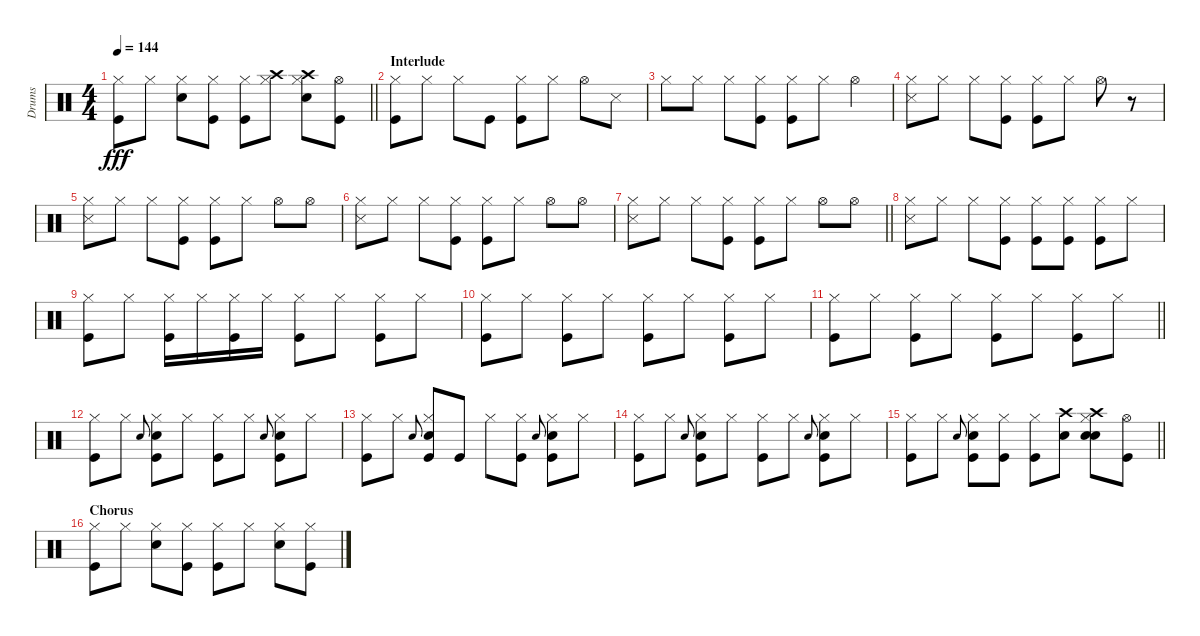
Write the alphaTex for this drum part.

\track ("Drums" "Drums") {instrument percussion}
\staff {score}
\articulation defaults
\ts (4 4)
\tempo 144
\clef neutral
\barLineRight lightlight
\ks c
("Kick (hit)" "Hi-Hat (closed)").8{dy fff} "Hi-Hat (closed)".8 ("Snare (hit) 2" "Hi-Hat (closed)").8 ("Kick (hit)" "Hi-Hat (closed)").8 ("Hi-Hat (closed)" "Kick (hit)").8 ("Crash high (hit)" "Hi-Hat (closed)").8 ("Crash high (hit)" "Snare (hit) 2" "Hi-Hat (closed)").8 ("Hi-Hat (open)" "Kick (hit)").8 |
\section ("" "Interlude")
("Hi-Hat (closed)" "Kick (hit)").8 "Hi-Hat (closed)".8 "Hi-Hat (closed)".8 "Kick (hit)".8 ("Kick (hit)" "Hi-Hat (closed)").8 "Hi-Hat (closed)".8 "Hi-Hat (open)".8 "Snare (side stick) 3".8 |
"Hi-Hat (closed)".8 "Hi-Hat (closed)".8 "Hi-Hat (closed)".8 ("Hi-Hat (closed)" "Kick (hit)").8 ("Hi-Hat (closed)" "Kick (hit)").8 "Hi-Hat (closed)".8 "Hi-Hat (open)".4 |
("Hi-Hat (closed)" "Snare (side stick) 3").8 "Hi-Hat (closed)".8 "Hi-Hat (closed)".8 ("Hi-Hat (closed)" "Kick (hit)").8 ("Hi-Hat (closed)" "Kick (hit)").8 "Hi-Hat (closed)".8 "Hi-Hat (open)".8 r.8 |
("Snare (side stick) 3" "Hi-Hat (closed)").8 "Hi-Hat (closed)".8 "Hi-Hat (closed)".8 ("Hi-Hat (closed)" "Kick (hit)").8 ("Hi-Hat (closed)" "Kick (hit)").8 "Hi-Hat (closed)".8 "Hi-Hat (open)".8 "Hi-Hat (open)".8 |
("Hi-Hat (closed)" "Snare (side stick) 3").8 "Hi-Hat (closed)".8 "Hi-Hat (closed)".8 ("Hi-Hat (closed)" "Kick (hit)").8 ("Hi-Hat (closed)" "Kick (hit)").8 "Hi-Hat (closed)".8 "Hi-Hat (open)".8 "Hi-Hat (open)".8 |
\barLineRight lightlight
("Snare (side stick) 3" "Hi-Hat (closed)").8 "Hi-Hat (closed)".8 "Hi-Hat (closed)".8 ("Hi-Hat (closed)" "Kick (hit)").8 ("Kick (hit)" "Hi-Hat (closed)").8 "Hi-Hat (closed)".8 "Hi-Hat (open)".8 "Hi-Hat (open)".8 |
("Hi-Hat (closed)" "Snare (side stick) 3").8 "Hi-Hat (closed)".8 "Hi-Hat (closed)".8 ("Hi-Hat (closed)" "Kick (hit)").8 ("Kick (hit)" "Hi-Hat (closed)").8 ("Kick (hit)" "Hi-Hat (closed)").8 ("Hi-Hat (closed)" "Kick (hit)").8 "Hi-Hat (closed)".8 |
("Kick (hit)" "Hi-Hat (closed)").8 "Hi-Hat (closed)".8 ("Hi-Hat (closed)" "Kick (hit)").16 "Hi-Hat (closed)".16 ("Hi-Hat (closed)" "Kick (hit)").16 "Hi-Hat (closed)".16 ("Kick (hit)" "Hi-Hat (closed)").8 "Hi-Hat (closed)".8 ("Kick (hit)" "Hi-Hat (closed)").8 "Hi-Hat (closed)".8 |
("Hi-Hat (closed)" "Kick (hit)").8 "Hi-Hat (closed)".8 ("Hi-Hat (closed)" "Kick (hit)").8 "Hi-Hat (closed)".8 ("Kick (hit)" "Hi-Hat (closed)").8 "Hi-Hat (closed)".8 ("Kick (hit)" "Hi-Hat (closed)").8 "Hi-Hat (closed)".8 |
\barLineRight lightlight
("Hi-Hat (closed)" "Kick (hit)").8 "Hi-Hat (closed)".8 ("Hi-Hat (closed)" "Kick (hit)").8 "Hi-Hat (closed)".8 ("Kick (hit)" "Hi-Hat (closed)").8 "Hi-Hat (closed)".8 ("Kick (hit)" "Hi-Hat (closed)").8 "Hi-Hat (closed)".8 |
("Kick (hit)" "Hi-Hat (closed)").8 "Hi-Hat (closed)".8 "Snare (hit) 2"{h}.8{gr onbeat} ("Kick (hit)" "Hi-Hat (closed)" "Snare (hit) 2").8 "Hi-Hat (closed)".8 ("Kick (hit)" "Hi-Hat (closed)").8 "Hi-Hat (closed)".8 "Snare (hit) 2"{h}.8{gr onbeat} ("Kick (hit)" "Hi-Hat (closed)" "Snare (hit) 2").8 "Hi-Hat (closed)".8 |
("Kick (hit)" "Hi-Hat (closed)").8 "Hi-Hat (closed)".8 "Snare (hit) 2"{h}.8{gr onbeat} ("Kick (hit)" "Hi-Hat (closed)" "Snare (hit) 2").8 "Kick (hit)".8 "Hi-Hat (closed)".8 ("Hi-Hat (closed)" "Kick (hit)").8 "Snare (hit) 2"{h}.8{gr onbeat} ("Kick (hit)" "Hi-Hat (closed)" "Snare (hit) 2").8 "Hi-Hat (closed)".8 |
("Hi-Hat (closed)" "Kick (hit)").8 "Hi-Hat (closed)".8 "Snare (hit) 2"{h}.8{gr onbeat} ("Kick (hit)" "Hi-Hat (closed)" "Snare (hit) 2").8 "Hi-Hat (closed)".8 ("Kick (hit)" "Hi-Hat (closed)").8 "Hi-Hat (closed)".8 "Snare (hit) 2"{h}.8{gr onbeat} ("Kick (hit)" "Hi-Hat (closed)" "Snare (hit) 2").8 "Hi-Hat (closed)".8 |
\barLineRight lightlight
("Kick (hit)" "Hi-Hat (closed)").8 "Hi-Hat (closed)".8 "Snare (hit) 2"{h}.8{gr onbeat} ("Kick (hit)" "Hi-Hat (closed)" "Snare (hit) 2").8 ("Hi-Hat (closed)" "Kick (hit)").8 ("Kick (hit)" "Hi-Hat (closed)").8 ("Crash high (hit)" "Snare (hit) 2").8 ("Snare (hit) 2" "Crash high (hit)" "Snare (hit) 2" "Hi-Hat (closed)").8 ("Hi-Hat (open)" "Kick (hit)").8 |
\section ("" "Chorus")
("Hi-Hat (closed)" "Kick (hit)").8 "Hi-Hat (closed)".8 ("Snare (hit) 2" "Hi-Hat (closed)").8 ("Kick (hit)" "Hi-Hat (closed)").8 ("Kick (hit)" "Hi-Hat (closed)").8 "Hi-Hat (closed)".8 ("Snare (hit) 2" "Hi-Hat (closed)").8 ("Hi-Hat (closed)" "Kick (hit)").8
